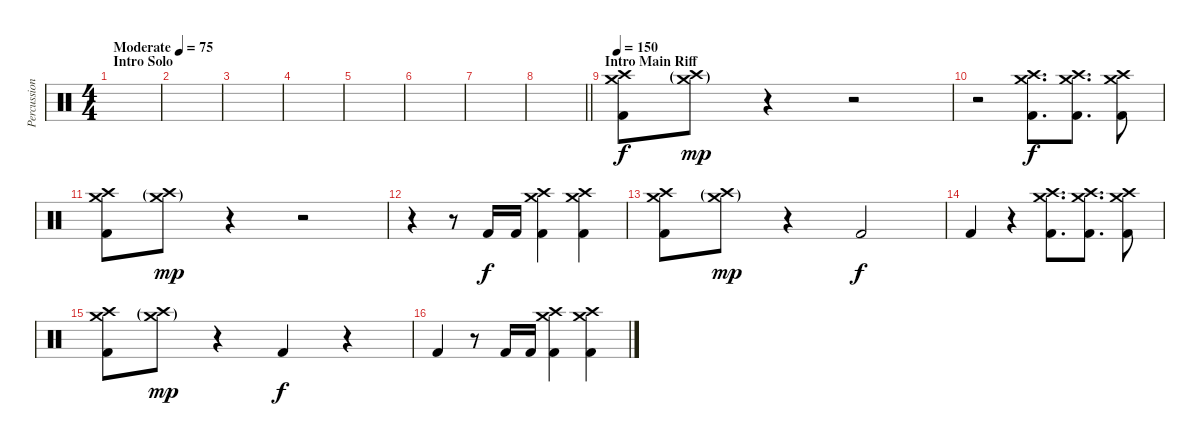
\track ("Percussion" "Percussion") {instrument percussion}
\staff {score}
\articulation defaults
\ts (4 4)
\section ("" "Intro Solo")
\tempo (75 "Moderate")
\clef neutral
\ks c
|
|
|
|
|
|
|
\barLineRight lightlight
|
\section ("" "Intro Main Riff")
\tempo 150
("Crash high (hit)" "Crash medium (hit)" "Kick (hit) 2").8 ("Crash high (hit)"{g} "Crash medium (hit)"{g}).8{dy mp} r.4 r.2 |
r.2 ("Crash high (hit)" "Crash medium (hit)" "Kick (hit) 2").8{d dy f} ("Crash high (hit)" "Crash medium (hit)" "Kick (hit) 2").8{d} ("Crash high (hit)" "Crash medium (hit)" "Kick (hit) 2").8 |
("Crash high (hit)" "Crash medium (hit)" "Kick (hit) 2").8 ("Crash high (hit)"{g} "Crash medium (hit)"{g}).8{dy mp} r.4 r.2 |
r.4 r.8 "Kick (hit) 2".16{dy f} "Kick (hit) 2".16 ("Crash high (hit)" "Crash medium (hit)" "Kick (hit) 2").4 ("Crash high (hit)" "Crash medium (hit)" "Kick (hit) 2").4 |
("Crash high (hit)" "Crash medium (hit)" "Kick (hit) 2").8 ("Crash high (hit)"{g} "Crash medium (hit)"{g}).8{dy mp} r.4 "Kick (hit) 2".2{dy f} |
"Kick (hit) 2".4 r.4 ("Crash high (hit)" "Crash medium (hit)" "Kick (hit) 2").8{d} ("Crash high (hit)" "Crash medium (hit)" "Kick (hit) 2").8{d} ("Crash high (hit)" "Crash medium (hit)" "Kick (hit) 2").8 |
("Crash high (hit)" "Crash medium (hit)" "Kick (hit) 2").8 ("Crash high (hit)"{g} "Crash medium (hit)"{g}).8{dy mp} r.4 "Kick (hit) 2".4{dy f} r.4 |
"Kick (hit) 2".4 r.8 "Kick (hit) 2".16 "Kick (hit) 2".16 ("Crash high (hit)" "Crash medium (hit)" "Kick (hit) 2").4 ("Crash high (hit)" "Crash medium (hit)" "Kick (hit) 2").4
